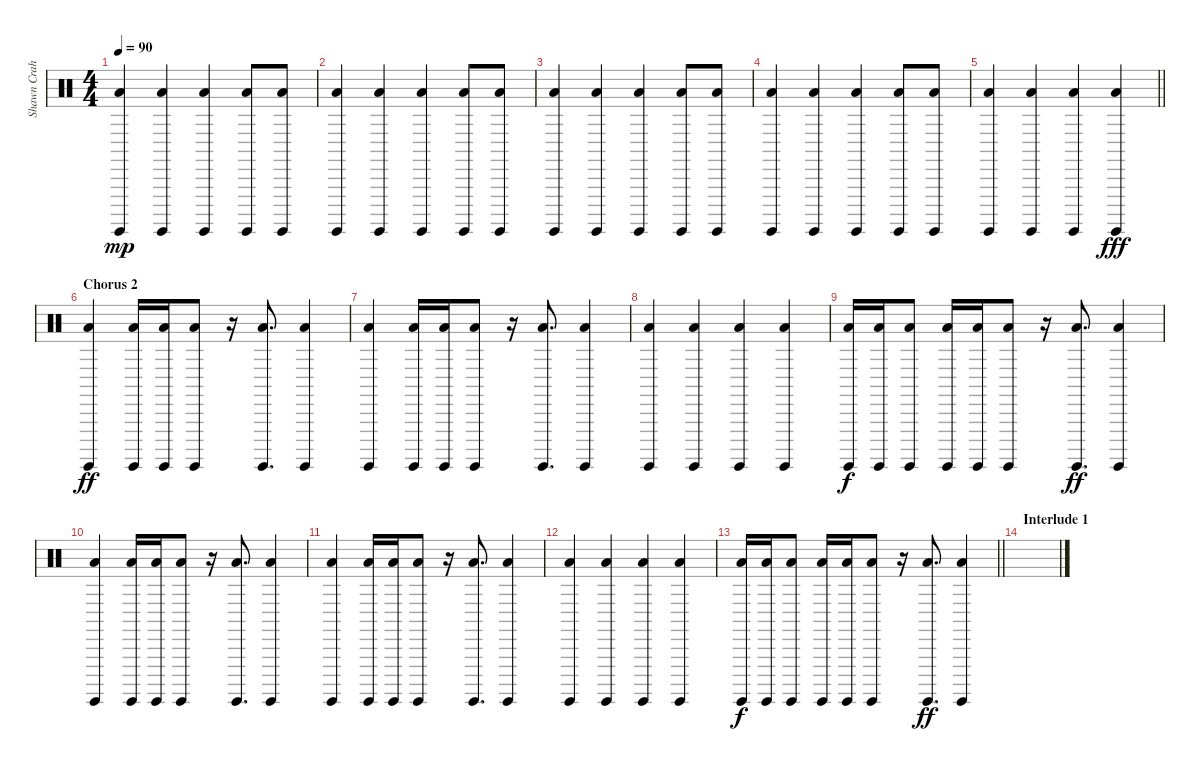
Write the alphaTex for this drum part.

\track ("Shawn Crahan" "Shawn Crah") {instrument percussion}
\staff {score}
\articulation defaults
\ts (4 4)
\tempo 90
\clef neutral
\ks c
("Surdo (hit)" "Low Floor Tom (hit)").4{dy mp} ("Surdo (hit)" "Low Floor Tom (hit)").4 ("Surdo (hit)" "Low Floor Tom (hit)").4 ("Surdo (hit)" "Low Floor Tom (hit)").8 ("Surdo (hit)" "Low Floor Tom (hit)").8 |
("Surdo (hit)" "Low Floor Tom (hit)").4 ("Surdo (hit)" "Low Floor Tom (hit)").4 ("Surdo (hit)" "Low Floor Tom (hit)").4 ("Surdo (hit)" "Low Floor Tom (hit)").8 ("Surdo (hit)" "Low Floor Tom (hit)").8 |
("Surdo (hit)" "Low Floor Tom (hit)").4 ("Surdo (hit)" "Low Floor Tom (hit)").4 ("Surdo (hit)" "Low Floor Tom (hit)").4 ("Surdo (hit)" "Low Floor Tom (hit)").8 ("Surdo (hit)" "Low Floor Tom (hit)").8 |
("Surdo (hit)" "Low Floor Tom (hit)").4 ("Surdo (hit)" "Low Floor Tom (hit)").4 ("Surdo (hit)" "Low Floor Tom (hit)").4 ("Surdo (hit)" "Low Floor Tom (hit)").8 ("Surdo (hit)" "Low Floor Tom (hit)").8 |
\barLineRight lightlight
("Surdo (hit)" "Low Floor Tom (hit)").4 ("Surdo (hit)" "Low Floor Tom (hit)").4 ("Surdo (hit)" "Low Floor Tom (hit)").4 ("Surdo (hit)" "Low Floor Tom (hit)").4{dy fff} |
\section ("" "Chorus 2")
("Surdo (hit)" "Low Floor Tom (hit)").4{dy ff} ("Surdo (hit)" "Low Floor Tom (hit)").16 ("Surdo (hit)" "Low Floor Tom (hit)").16 ("Surdo (hit)" "Low Floor Tom (hit)").8 r.16 ("Surdo (hit)" "Low Floor Tom (hit)").8{d} ("Surdo (hit)" "Low Floor Tom (hit)").4 |
("Surdo (hit)" "Low Floor Tom (hit)").4 ("Surdo (hit)" "Low Floor Tom (hit)").16 ("Surdo (hit)" "Low Floor Tom (hit)").16 ("Surdo (hit)" "Low Floor Tom (hit)").8 r.16 ("Surdo (hit)" "Low Floor Tom (hit)").8{d} ("Surdo (hit)" "Low Floor Tom (hit)").4 |
("Surdo (hit)" "Low Floor Tom (hit)").4 ("Surdo (hit)" "Low Floor Tom (hit)").4 ("Surdo (hit)" "Low Floor Tom (hit)").4 ("Surdo (hit)" "Low Floor Tom (hit)").4 |
("Surdo (hit)" "Low Floor Tom (hit)").16{dy f} ("Surdo (hit)" "Low Floor Tom (hit)").16 ("Surdo (hit)" "Low Floor Tom (hit)").8 ("Surdo (hit)" "Low Floor Tom (hit)").16 ("Surdo (hit)" "Low Floor Tom (hit)").16 ("Surdo (hit)" "Low Floor Tom (hit)").8 r.16 ("Surdo (hit)" "Low Floor Tom (hit)").8{d dy ff} ("Surdo (hit)" "Low Floor Tom (hit)").4 |
("Surdo (hit)" "Low Floor Tom (hit)").4 ("Surdo (hit)" "Low Floor Tom (hit)").16 ("Surdo (hit)" "Low Floor Tom (hit)").16 ("Surdo (hit)" "Low Floor Tom (hit)").8 r.16 ("Surdo (hit)" "Low Floor Tom (hit)").8{d} ("Surdo (hit)" "Low Floor Tom (hit)").4 |
("Surdo (hit)" "Low Floor Tom (hit)").4 ("Surdo (hit)" "Low Floor Tom (hit)").16 ("Surdo (hit)" "Low Floor Tom (hit)").16 ("Surdo (hit)" "Low Floor Tom (hit)").8 r.16 ("Surdo (hit)" "Low Floor Tom (hit)").8{d} ("Surdo (hit)" "Low Floor Tom (hit)").4 |
("Surdo (hit)" "Low Floor Tom (hit)").4 ("Surdo (hit)" "Low Floor Tom (hit)").4 ("Surdo (hit)" "Low Floor Tom (hit)").4 ("Surdo (hit)" "Low Floor Tom (hit)").4 |
\barLineRight lightlight
("Surdo (hit)" "Low Floor Tom (hit)").16{dy f} ("Surdo (hit)" "Low Floor Tom (hit)").16 ("Surdo (hit)" "Low Floor Tom (hit)").8 ("Surdo (hit)" "Low Floor Tom (hit)").16 ("Surdo (hit)" "Low Floor Tom (hit)").16 ("Surdo (hit)" "Low Floor Tom (hit)").8 r.16 ("Surdo (hit)" "Low Floor Tom (hit)").8{d dy ff} ("Surdo (hit)" "Low Floor Tom (hit)").4 |
\section ("" "Interlude 1")
